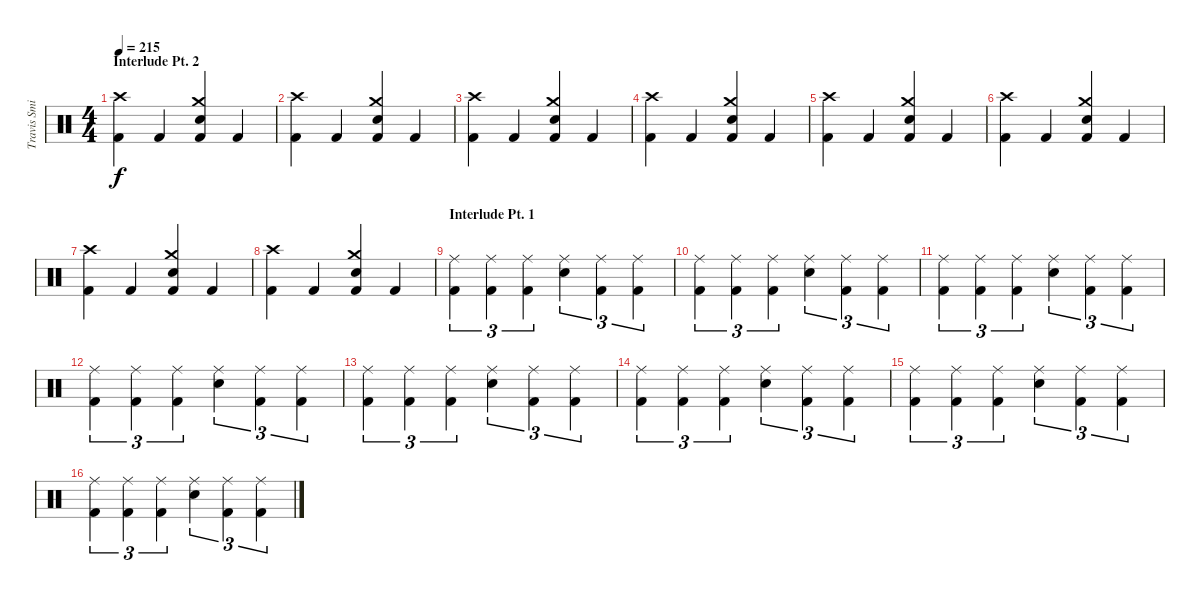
\track ("Travis Smith" "Travis Smi") {instrument percussion}
\staff {score}
\articulation defaults
\ts (4 4)
\section ("" "Interlude Pt. 2")
\tempo 215
\clef neutral
\ks c
("Crash high (hit)" "Kick (hit) 2").4{dy f} "Kick (hit) 2".4 ("Crash medium (hit)" "Electric Snare (hit)" "Kick (hit) 2").4 "Kick (hit) 2".4 |
("Crash high (hit)" "Kick (hit) 2").4 "Kick (hit) 2".4 ("Crash medium (hit)" "Electric Snare (hit)" "Kick (hit) 2").4 "Kick (hit) 2".4 |
("Crash high (hit)" "Kick (hit) 2").4 "Kick (hit) 2".4 ("Crash medium (hit)" "Electric Snare (hit)" "Kick (hit) 2").4 "Kick (hit) 2".4 |
("Crash high (hit)" "Kick (hit) 2").4 "Kick (hit) 2".4 ("Crash medium (hit)" "Electric Snare (hit)" "Kick (hit) 2").4 "Kick (hit) 2".4 |
("Crash high (hit)" "Kick (hit) 2").4 "Kick (hit) 2".4 ("Crash medium (hit)" "Electric Snare (hit)" "Kick (hit) 2").4 "Kick (hit) 2".4 |
("Crash high (hit)" "Kick (hit) 2").4 "Kick (hit) 2".4 ("Crash medium (hit)" "Electric Snare (hit)" "Kick (hit) 2").4 "Kick (hit) 2".4 |
("Crash high (hit)" "Kick (hit) 2").4 "Kick (hit) 2".4 ("Crash medium (hit)" "Electric Snare (hit)" "Kick (hit) 2").4 "Kick (hit) 2".4 |
("Crash high (hit)" "Kick (hit) 2").4 "Kick (hit) 2".4 ("Crash medium (hit)" "Electric Snare (hit)" "Kick (hit) 2").4 "Kick (hit) 2".4 |
\section ("" "Interlude Pt. 1")
("Ride (middle)" "Kick (hit) 2").4{tu (3 2)} ("Ride (middle)" "Kick (hit) 2").4{tu (3 2)} ("Ride (middle)" "Kick (hit) 2").4{tu (3 2)} ("Ride (middle)" "Electric Snare (hit)").4{tu (3 2)} ("Ride (middle)" "Kick (hit) 2").4{tu (3 2)} ("Ride (middle)" "Kick (hit) 2").4{tu (3 2)} |
("Ride (middle)" "Kick (hit) 2").4{tu (3 2)} ("Ride (middle)" "Kick (hit) 2").4{tu (3 2)} ("Ride (middle)" "Kick (hit) 2").4{tu (3 2)} ("Ride (middle)" "Electric Snare (hit)").4{tu (3 2)} ("Ride (middle)" "Kick (hit) 2").4{tu (3 2)} ("Ride (middle)" "Kick (hit) 2").4{tu (3 2)} |
("Ride (middle)" "Kick (hit) 2").4{tu (3 2)} ("Ride (middle)" "Kick (hit) 2").4{tu (3 2)} ("Ride (middle)" "Kick (hit) 2").4{tu (3 2)} ("Ride (middle)" "Electric Snare (hit)").4{tu (3 2)} ("Ride (middle)" "Kick (hit) 2").4{tu (3 2)} ("Ride (middle)" "Kick (hit) 2").4{tu (3 2)} |
("Ride (middle)" "Kick (hit) 2").4{tu (3 2)} ("Ride (middle)" "Kick (hit) 2").4{tu (3 2)} ("Ride (middle)" "Kick (hit) 2").4{tu (3 2)} ("Ride (middle)" "Electric Snare (hit)").4{tu (3 2)} ("Ride (middle)" "Kick (hit) 2").4{tu (3 2)} ("Ride (middle)" "Kick (hit) 2").4{tu (3 2)} |
("Ride (middle)" "Kick (hit) 2").4{tu (3 2)} ("Ride (middle)" "Kick (hit) 2").4{tu (3 2)} ("Ride (middle)" "Kick (hit) 2").4{tu (3 2)} ("Ride (middle)" "Electric Snare (hit)").4{tu (3 2)} ("Ride (middle)" "Kick (hit) 2").4{tu (3 2)} ("Ride (middle)" "Kick (hit) 2").4{tu (3 2)} |
("Ride (middle)" "Kick (hit) 2").4{tu (3 2)} ("Ride (middle)" "Kick (hit) 2").4{tu (3 2)} ("Ride (middle)" "Kick (hit) 2").4{tu (3 2)} ("Ride (middle)" "Electric Snare (hit)").4{tu (3 2)} ("Ride (middle)" "Kick (hit) 2").4{tu (3 2)} ("Ride (middle)" "Kick (hit) 2").4{tu (3 2)} |
("Ride (middle)" "Kick (hit) 2").4{tu (3 2)} ("Ride (middle)" "Kick (hit) 2").4{tu (3 2)} ("Ride (middle)" "Kick (hit) 2").4{tu (3 2)} ("Ride (middle)" "Electric Snare (hit)").4{tu (3 2)} ("Ride (middle)" "Kick (hit) 2").4{tu (3 2)} ("Ride (middle)" "Kick (hit) 2").4{tu (3 2)} |
("Ride (middle)" "Kick (hit) 2").4{tu (3 2)} ("Ride (middle)" "Kick (hit) 2").4{tu (3 2)} ("Ride (middle)" "Kick (hit) 2").4{tu (3 2)} ("Ride (middle)" "Electric Snare (hit)").4{tu (3 2)} ("Ride (middle)" "Kick (hit) 2").4{tu (3 2)} ("Ride (middle)" "Kick (hit) 2").4{tu (3 2)}
